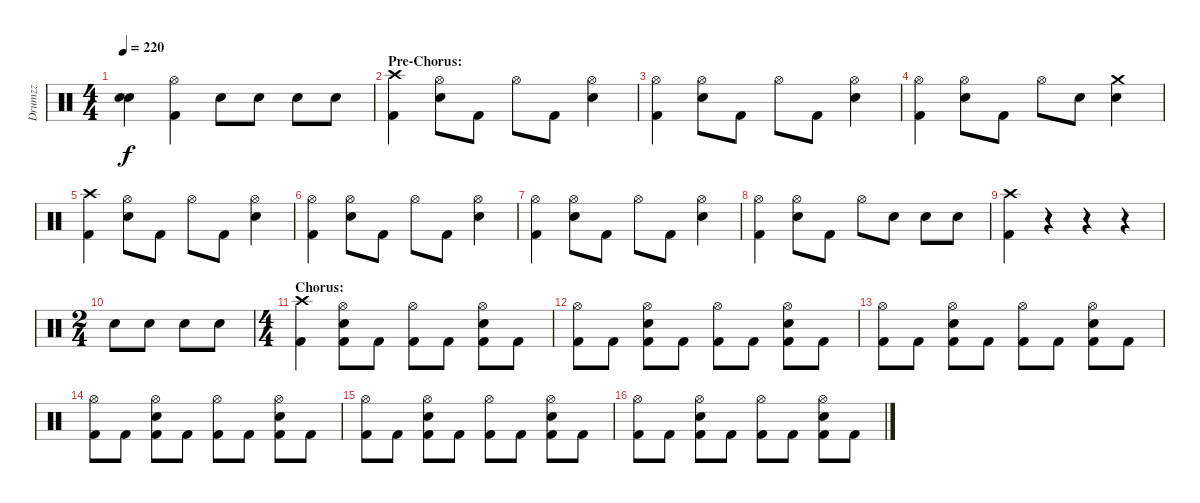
\track ("Drumzz" "Drumzz") {instrument percussion}
\staff {score}
\articulation defaults
\ts (4 4)
\tempo 220
\clef neutral
\ks c
("Snare (hit)"{t} "Snare (hit)"{t}).4{dy f} ("Hi-Hat (open)" "Kick (hit) 2").4 "Electric Snare (hit)".8 "Electric Snare (hit)".8 "Electric Snare (hit)".8 "Electric Snare (hit)".8 |
\section ("" "Pre-Chorus:")
("Crash high (hit)" "Kick (hit) 2").4 ("Hi-Hat (open)" "Electric Snare (hit)").8 "Kick (hit) 2".8 "Hi-Hat (open)".8 "Kick (hit) 2".8 ("Hi-Hat (open)" "Electric Snare (hit)").4 |
("Hi-Hat (open)" "Kick (hit) 2").4 ("Hi-Hat (open)" "Electric Snare (hit)").8 "Kick (hit) 2".8 "Hi-Hat (open)".8 "Kick (hit) 2".8 ("Hi-Hat (open)" "Electric Snare (hit)").4 |
("Hi-Hat (open)" "Kick (hit) 2").4 ("Hi-Hat (open)" "Electric Snare (hit)").8 "Kick (hit) 2".8 "Hi-Hat (open)".8 "Electric Snare (hit)".8 ("Crash medium (hit)" "Electric Snare (hit)").4 |
("Crash high (hit)" "Kick (hit) 2").4 ("Hi-Hat (open)" "Electric Snare (hit)").8 "Kick (hit) 2".8 "Hi-Hat (open)".8 "Kick (hit) 2".8 ("Hi-Hat (open)" "Electric Snare (hit)").4 |
("Hi-Hat (open)" "Kick (hit) 2").4 ("Hi-Hat (open)" "Electric Snare (hit)").8 "Kick (hit) 2".8 "Hi-Hat (open)".8 "Kick (hit) 2".8 ("Hi-Hat (open)" "Electric Snare (hit)").4 |
("Hi-Hat (open)" "Kick (hit) 2").4 ("Hi-Hat (open)" "Electric Snare (hit)").8 "Kick (hit) 2".8 "Hi-Hat (open)".8 "Kick (hit) 2".8 ("Hi-Hat (open)" "Electric Snare (hit)").4 |
("Hi-Hat (open)" "Kick (hit) 2").4 ("Hi-Hat (open)" "Electric Snare (hit)").8 "Kick (hit) 2".8 "Hi-Hat (open)".8 "Electric Snare (hit)".8 "Electric Snare (hit)".8 "Electric Snare (hit)".8 |
("Crash high (hit)" "Kick (hit) 2").4 r.4 r.4 r.4 |
\ts (2 4)
"Electric Snare (hit)".8 "Electric Snare (hit)".8 "Electric Snare (hit)".8 "Electric Snare (hit)".8 |
\ts (4 4)
\section ("" "Chorus:")
("Crash high (hit)" "Kick (hit) 2").4 ("Hi-Hat (open)" "Electric Snare (hit)" "Kick (hit) 2").8 "Kick (hit) 2".8 ("Hi-Hat (open)" "Kick (hit) 2").8 "Kick (hit) 2".8 ("Hi-Hat (open)" "Electric Snare (hit)" "Kick (hit) 2").8 "Kick (hit) 2".8 |
("Hi-Hat (open)" "Kick (hit) 2").8 "Kick (hit) 2".8 ("Hi-Hat (open)" "Electric Snare (hit)" "Kick (hit) 2").8 "Kick (hit) 2".8 ("Hi-Hat (open)" "Kick (hit) 2").8 "Kick (hit) 2".8 ("Hi-Hat (open)" "Electric Snare (hit)" "Kick (hit) 2").8 "Kick (hit) 2".8 |
("Hi-Hat (open)" "Kick (hit) 2").8 "Kick (hit) 2".8 ("Hi-Hat (open)" "Electric Snare (hit)" "Kick (hit) 2").8 "Kick (hit) 2".8 ("Hi-Hat (open)" "Kick (hit) 2").8 "Kick (hit) 2".8 ("Hi-Hat (open)" "Electric Snare (hit)" "Kick (hit) 2").8 "Kick (hit) 2".8 |
("Hi-Hat (open)" "Kick (hit) 2").8 "Kick (hit) 2".8 ("Hi-Hat (open)" "Electric Snare (hit)" "Kick (hit) 2").8 "Kick (hit) 2".8 ("Hi-Hat (open)" "Kick (hit) 2").8 "Kick (hit) 2".8 ("Hi-Hat (open)" "Electric Snare (hit)" "Kick (hit) 2").8 "Kick (hit) 2".8 |
("Hi-Hat (open)" "Kick (hit) 2").8 "Kick (hit) 2".8 ("Hi-Hat (open)" "Electric Snare (hit)" "Kick (hit) 2").8 "Kick (hit) 2".8 ("Hi-Hat (open)" "Kick (hit) 2").8 "Kick (hit) 2".8 ("Hi-Hat (open)" "Electric Snare (hit)" "Kick (hit) 2").8 "Kick (hit) 2".8 |
("Hi-Hat (open)" "Kick (hit) 2").8 "Kick (hit) 2".8 ("Hi-Hat (open)" "Electric Snare (hit)" "Kick (hit) 2").8 "Kick (hit) 2".8 ("Hi-Hat (open)" "Kick (hit) 2").8 "Kick (hit) 2".8 ("Hi-Hat (open)" "Electric Snare (hit)" "Kick (hit) 2").8 "Kick (hit) 2".8
